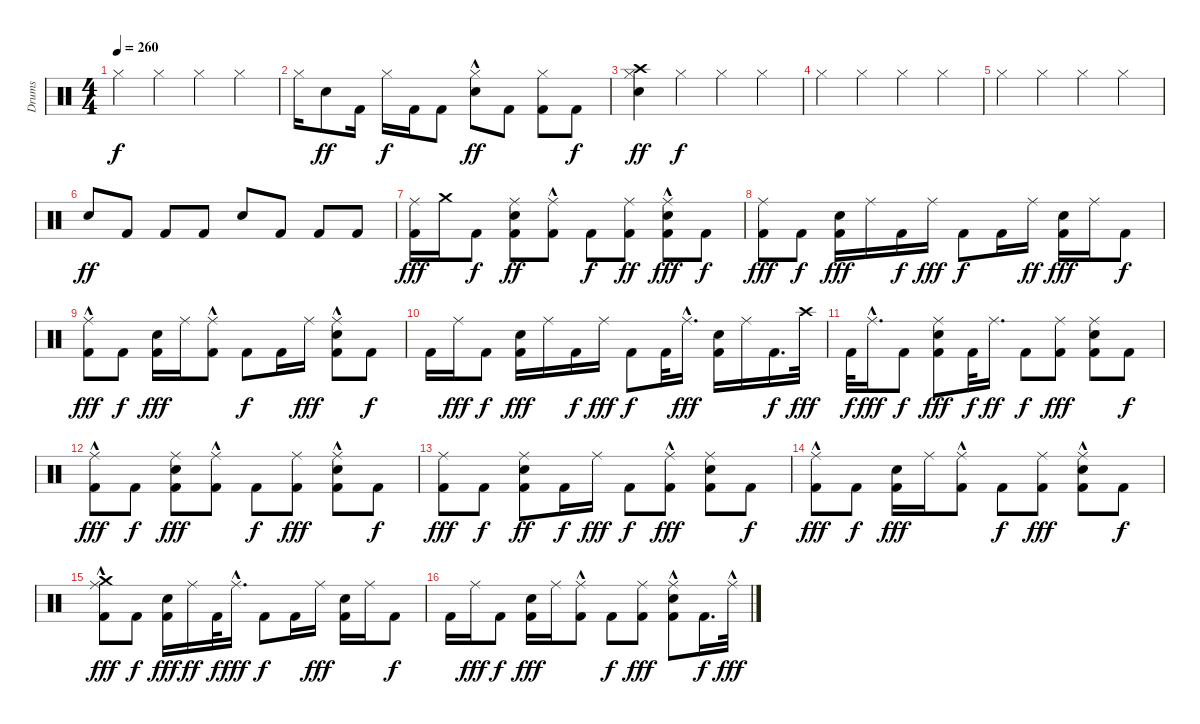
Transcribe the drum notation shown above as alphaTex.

\track ("Drums" "Drums") {instrument percussion}
\staff {score}
\articulation defaults
\ts (4 4)
\tempo 260
\clef neutral
\ks c "Hi-Hat (closed)".4{dy f} "Hi-Hat (closed)".4 "Hi-Hat (closed)".4 "Hi-Hat (closed)".4
|
"Hi-Hat (closed)".16 "Snare (hit) 2".8{dy ff} "Kick (hit) 2".16 "Hi-Hat (closed)".16{dy f} "Kick (hit) 2".16 "Kick (hit) 2".8 ("Hi-Hat (closed)" "Snare (hit) 2"{hac}).8{dy ff} "Kick (hit) 2".8 ("Hi-Hat (closed)" "Kick (hit) 2").8 "Kick (hit) 2".8{dy f} |
("Hi-Hat (closed)" "Crash high (hit)" "Snare (hit) 2").4{dy ff} "Hi-Hat (closed)".4{dy f} "Hi-Hat (closed)".4 "Hi-Hat (closed)".4 |
"Hi-Hat (closed)".4 "Hi-Hat (closed)".4 "Hi-Hat (closed)".4 "Hi-Hat (closed)".4 |
"Hi-Hat (closed)".4 "Hi-Hat (closed)".4 "Hi-Hat (closed)".4 "Hi-Hat (closed)".4 |
"Snare (hit) 2".8{dy ff} "Kick (hit) 2".8 "Kick (hit) 2".8 "Kick (hit) 2".8 "Snare (hit) 2".8 "Kick (hit) 2".8 "Kick (hit) 2".8 "Kick (hit) 2".8 |
("Ride (middle)" "Kick (hit) 2").16{dy fff} "Crash medium (hit)".16 "Kick (hit) 2".8{dy f} ("Snare (hit) 2" "Kick (hit) 2" "Ride (middle)").8{dy ff} ("Ride (middle)"{hac} "Kick (hit) 2").8 "Kick (hit) 2".8{dy f} ("Ride (middle)" "Kick (hit) 2").8{dy ff} ("Ride (middle)"{hac} "Snare (hit) 2" "Kick (hit) 2").8{dy fff} "Kick (hit) 2".8{dy f} |
("Kick (hit) 2" "Ride (middle)").8{dy fff} "Kick (hit) 2".8{dy f} ("Snare (hit) 2" "Kick (hit) 2").16{dy fff} "Ride (middle)".16 "Kick (hit) 2".16{dy f} "Ride (middle)".16{dy fff} "Kick (hit) 2".8{dy f} "Kick (hit) 2".16 "Ride (middle)".16{dy ff} ("Snare (hit) 2" "Kick (hit) 2").16{dy fff} "Ride (middle)".16 "Kick (hit) 2".8{dy f} |
("Kick (hit) 2" "Ride (middle)"{hac}).8{dy fff} "Kick (hit) 2".8{dy f} ("Snare (hit) 2" "Kick (hit) 2").16{dy fff} "Ride (middle)".16 ("Kick (hit) 2" "Ride (middle)"{hac}).8 "Kick (hit) 2".8{dy f} "Kick (hit) 2".16 "Ride (middle)".16{dy fff} ("Snare (hit) 2" "Kick (hit) 2" "Ride (middle)"{hac}).8 "Kick (hit) 2".8{dy f} |
"Kick (hit) 2".16 "Ride (middle)".16{dy fff} "Kick (hit) 2".8{dy f} ("Snare (hit) 2" "Kick (hit) 2").16{dy fff} "Ride (middle)".16 "Kick (hit) 2".16{dy f} "Ride (middle)".16{dy fff} "Kick (hit) 2".8{dy f} "Kick (hit) 2".32 "Ride (middle)"{hac}.16{d dy fff} ("Snare (hit) 2" "Kick (hit) 2").16 "Ride (middle)".16 "Kick (hit) 2".16{d dy f} "Crash high (hit)".32{dy fff} |
"Kick (hit) 2".32{dy f} "Ride (middle)"{hac}.16{d dy fff} "Kick (hit) 2".8{dy f} ("Snare (hit) 2" "Kick (hit) 2" "Ride (middle)").8{dy fff} "Kick (hit) 2".32{dy f} "Ride (middle)".16{d dy ff} "Kick (hit) 2".8{dy f} ("Kick (hit) 2" "Ride (middle)").8{dy fff} ("Snare (hit) 2" "Kick (hit) 2" "Ride (middle)").8 "Kick (hit) 2".8{dy f} |
("Ride (middle)"{hac} "Kick (hit) 2").8{dy fff} "Kick (hit) 2".8{dy f} ("Snare (hit) 2" "Kick (hit) 2" "Ride (middle)").8{dy fff} ("Kick (hit) 2" "Ride (middle)"{hac}).8 "Kick (hit) 2".8{dy f} ("Kick (hit) 2" "Ride (middle)").8{dy fff} ("Ride (middle)"{hac} "Snare (hit) 2" "Kick (hit) 2").8 "Kick (hit) 2".8{dy f} |
("Ride (middle)" "Kick (hit) 2").8{dy fff} "Kick (hit) 2".8{dy f} ("Snare (hit) 2" "Kick (hit) 2" "Ride (middle)").8{dy ff} "Kick (hit) 2".16{dy f} "Ride (middle)".16{dy fff} "Kick (hit) 2".8{dy f} ("Kick (hit) 2" "Ride (middle)"{hac}).8{dy fff} ("Snare (hit) 2" "Kick (hit) 2" "Ride (middle)").8 "Kick (hit) 2".8{dy f} |
("Kick (hit) 2" "Ride (middle)"{hac}).8{dy fff} "Kick (hit) 2".8{dy f} ("Snare (hit) 2" "Kick (hit) 2").16{dy fff} "Ride (middle)".16 ("Kick (hit) 2" "Ride (middle)"{hac}).8 "Kick (hit) 2".8{dy f} ("Kick (hit) 2" "Ride (middle)").8{dy fff} ("Snare (hit) 2" "Kick (hit) 2" "Ride (middle)"{hac}).8 "Kick (hit) 2".8{dy f} |
("Crash medium (hit)" "Kick (hit) 2" "Ride (middle)"{hac}).8{dy fff} "Kick (hit) 2".8{dy f} ("Snare (hit) 2" "Kick (hit) 2").16{dy fff} "Ride (middle)".16{dy ff} "Kick (hit) 2".32{dy f} "Ride (middle)"{hac}.16{d dy fff} "Kick (hit) 2".8{dy f} "Kick (hit) 2".16 "Ride (middle)".16{dy fff} ("Snare (hit) 2" "Kick (hit) 2").16 "Ride (middle)".16 "Kick (hit) 2".8{dy f} |
"Kick (hit) 2".16 "Ride (middle)".16{dy fff} "Kick (hit) 2".8{dy f} ("Snare (hit) 2" "Kick (hit) 2").16{dy fff} "Ride (middle)".16 ("Kick (hit) 2" "Ride (middle)"{hac}).8 "Kick (hit) 2".8{dy f} ("Kick (hit) 2" "Ride (middle)").8{dy fff} ("Ride (middle)"{hac} "Snare (hit) 2" "Kick (hit) 2").8 "Kick (hit) 2".16{d dy f} "Ride (middle)"{hac}.32{dy fff}
